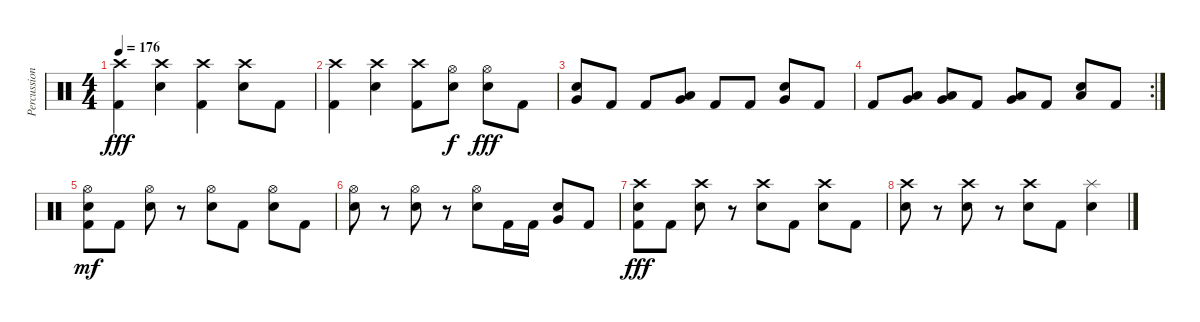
\track ("Percussion" "Percussion") {instrument percussion}
\staff {score}
\articulation defaults
\ts (4 4)
\tempo 176
\clef neutral
\ks c
("Crash high (hit)" "Kick (hit) 2").4{dy fff} ("Crash high (hit)" "Snare (hit) 2").4 ("Crash high (hit)" "Kick (hit) 2").4 ("Crash high (hit)" "Snare (hit) 2").8 "Kick (hit) 2".8 |
("Crash high (hit)" "Kick (hit) 2").4 ("Crash high (hit)" "Snare (hit) 2").4 ("Crash high (hit)" "Kick (hit) 2").8 ("Hi-Hat (open)" "Snare (hit) 2").8{dy f} ("Hi-Hat (open)" "Snare (hit) 2").8{dy fff} "Kick (hit) 2".8 |
("Snare (hit) 2" "Very Low Tom (hit)").8 "Kick (hit) 2".8 "Kick (hit) 2".8 ("Very Low Tom (hit)" "Low Floor Tom (hit)").8 "Kick (hit) 2".8 "Kick (hit) 2".8 ("Snare (hit) 2" "Very Low Tom (hit)").8 "Kick (hit) 2".8 |
\rc 2 "Kick (hit) 2".8
("Very Low Tom (hit)" "Low Floor Tom (hit)").8 ("Very Low Tom (hit)" "Low Floor Tom (hit)").8 "Kick (hit) 2".8 ("Very Low Tom (hit)" "Low Floor Tom (hit)").8 "Kick (hit) 2".8 ("Snare (hit) 2" "Low Floor Tom (hit)").8 "Kick (hit) 2".8 |
("Hi-Hat (open)" "Snare (hit) 2" "Kick (hit) 2").8{dy mf} "Kick (hit) 2".8 ("Hi-Hat (open)" "Snare (hit) 2").8 r.8 ("Hi-Hat (open)" "Snare (hit) 2").8 "Kick (hit) 2".8 ("Hi-Hat (open)" "Snare (hit) 2").8 "Kick (hit) 2".8 |
("Hi-Hat (open)" "Snare (hit) 2").8 r.8 ("Hi-Hat (open)" "Snare (hit) 2").8 r.8 ("Hi-Hat (open)" "Snare (hit) 2").8 "Kick (hit) 2".16 "Kick (hit) 2".16 ("Snare (hit) 2" "Very Low Tom (hit)").8 "Kick (hit) 2".8 |
("Crash high (hit)" "Snare (hit) 2" "Kick (hit) 2").8{dy fff} "Kick (hit) 2".8 ("Crash high (hit)" "Snare (hit) 2").8 r.8 ("Crash high (hit)" "Snare (hit) 2").8 "Kick (hit) 2".8 ("Crash high (hit)" "Snare (hit) 2").8 "Kick (hit) 2".8 |
("Crash high (hit)" "Snare (hit) 2").8 r.8 ("Crash high (hit)" "Snare (hit) 2").8 r.8 ("Crash high (hit)" "Snare (hit) 2").8 "Kick (hit) 2".8 ("Splash (hit)" "Snare (hit) 2").4
